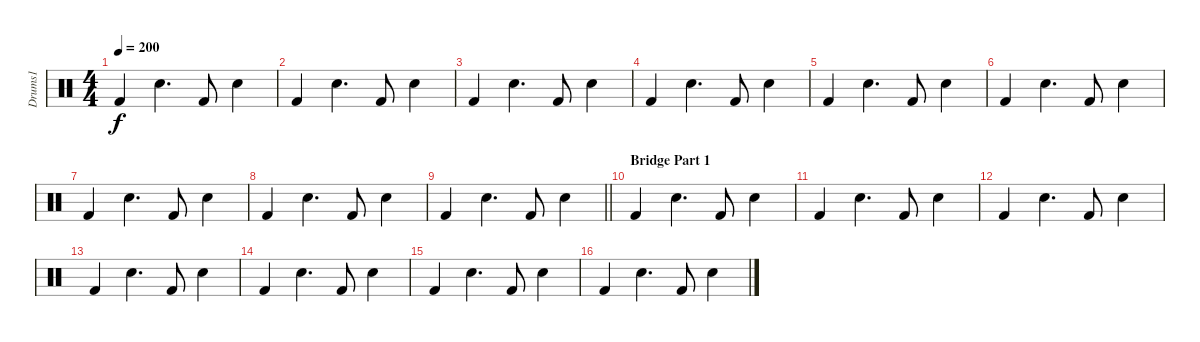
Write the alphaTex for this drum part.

\track ("Drums1" "Drums1") {instrument percussion}
\staff {score}
\articulation defaults
\ts (4 4)
\tempo 200
\clef neutral
\ks c "Kick (hit) 2".4{dy f} "Snare (hit) 2".4{d} "Kick (hit) 2".8 "Snare (hit) 2".4
|
"Kick (hit) 2".4 "Snare (hit) 2".4{d} "Kick (hit) 2".8 "Snare (hit) 2".4 |
"Kick (hit) 2".4 "Snare (hit) 2".4{d} "Kick (hit) 2".8 "Snare (hit) 2".4 |
"Kick (hit) 2".4 "Snare (hit) 2".4{d} "Kick (hit) 2".8 "Snare (hit) 2".4 |
"Kick (hit) 2".4 "Snare (hit) 2".4{d} "Kick (hit) 2".8 "Snare (hit) 2".4 |
"Kick (hit) 2".4 "Snare (hit) 2".4{d} "Kick (hit) 2".8 "Snare (hit) 2".4 |
"Kick (hit) 2".4 "Snare (hit) 2".4{d} "Kick (hit) 2".8 "Snare (hit) 2".4 |
"Kick (hit) 2".4 "Snare (hit) 2".4{d} "Kick (hit) 2".8 "Snare (hit) 2".4 |
\barLineRight lightlight "Kick (hit) 2".4 "Snare (hit) 2".4{d} "Kick (hit) 2".8 "Snare (hit) 2".4
|
\section ("" "Bridge Part 1")
"Kick (hit) 2".4 "Snare (hit) 2".4{d} "Kick (hit) 2".8 "Snare (hit) 2".4 |
"Kick (hit) 2".4 "Snare (hit) 2".4{d} "Kick (hit) 2".8 "Snare (hit) 2".4 |
"Kick (hit) 2".4 "Snare (hit) 2".4{d} "Kick (hit) 2".8 "Snare (hit) 2".4 |
"Kick (hit) 2".4 "Snare (hit) 2".4{d} "Kick (hit) 2".8 "Snare (hit) 2".4 |
"Kick (hit) 2".4 "Snare (hit) 2".4{d} "Kick (hit) 2".8 "Snare (hit) 2".4 |
"Kick (hit) 2".4 "Snare (hit) 2".4{d} "Kick (hit) 2".8 "Snare (hit) 2".4 |
"Kick (hit) 2".4 "Snare (hit) 2".4{d} "Kick (hit) 2".8 "Snare (hit) 2".4
